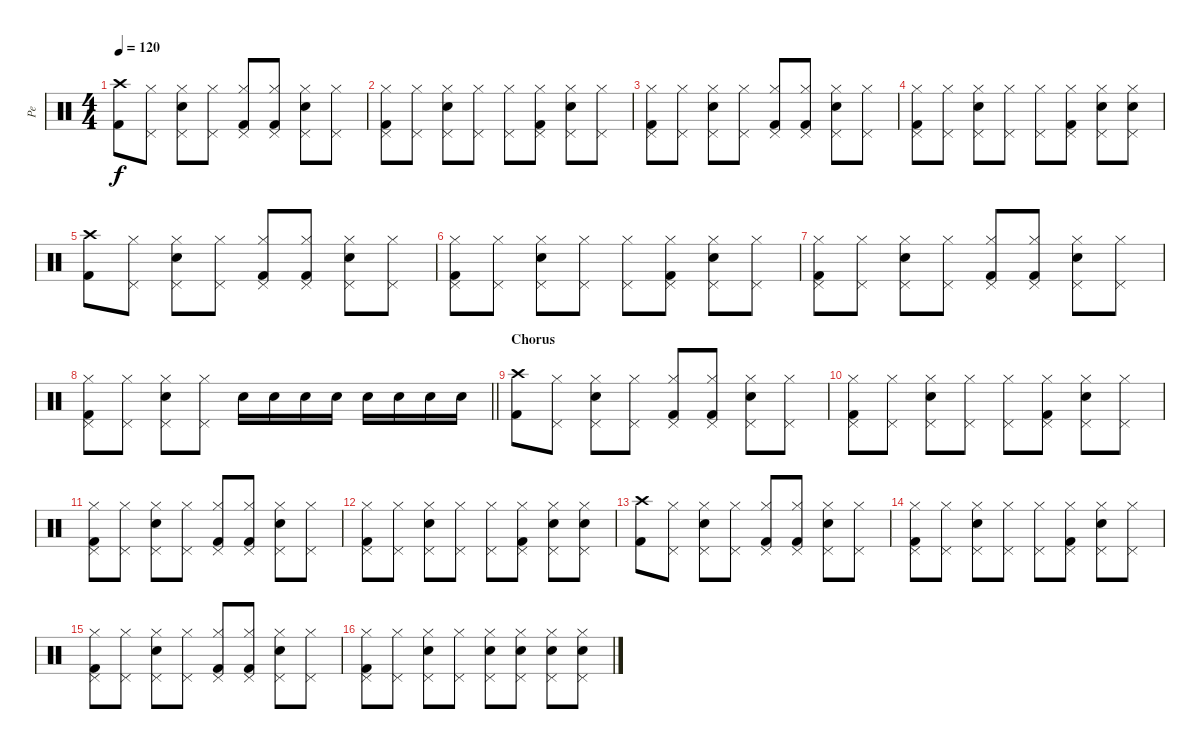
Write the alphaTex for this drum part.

\track ("Pe" "Pe") {instrument percussion}
\staff {score}
\articulation defaults
\ts (4 4)
\tempo 120
\clef neutral
\ks c
("Kick (hit) 2" "Crash high (hit)").8{dy f} ("Hi-Hat (closed)" "Pedal Hi-Hat (hit)").8 ("Snare (hit) 2" "Hi-Hat (closed)" "Pedal Hi-Hat (hit)").8 ("Hi-Hat (closed)" "Pedal Hi-Hat (hit)").8 ("Kick (hit) 2" "Hi-Hat (closed)" "Pedal Hi-Hat (hit)").8 ("Kick (hit) 2" "Hi-Hat (closed)" "Pedal Hi-Hat (hit)").8 ("Snare (hit) 2" "Hi-Hat (closed)" "Pedal Hi-Hat (hit)").8 ("Hi-Hat (closed)" "Pedal Hi-Hat (hit)").8 |
("Kick (hit) 2" "Hi-Hat (closed)" "Pedal Hi-Hat (hit)").8 ("Hi-Hat (closed)" "Pedal Hi-Hat (hit)").8 ("Snare (hit) 2" "Hi-Hat (closed)" "Pedal Hi-Hat (hit)").8 ("Hi-Hat (closed)" "Pedal Hi-Hat (hit)").8 ("Hi-Hat (closed)" "Pedal Hi-Hat (hit)").8 ("Kick (hit) 2" "Hi-Hat (closed)" "Pedal Hi-Hat (hit)").8 ("Snare (hit) 2" "Hi-Hat (closed)" "Pedal Hi-Hat (hit)").8 ("Hi-Hat (closed)" "Pedal Hi-Hat (hit)").8 |
("Kick (hit) 2" "Hi-Hat (closed)" "Pedal Hi-Hat (hit)").8 ("Hi-Hat (closed)" "Pedal Hi-Hat (hit)").8 ("Snare (hit) 2" "Hi-Hat (closed)" "Pedal Hi-Hat (hit)").8 ("Hi-Hat (closed)" "Pedal Hi-Hat (hit)").8 ("Kick (hit) 2" "Hi-Hat (closed)" "Pedal Hi-Hat (hit)").8 ("Kick (hit) 2" "Hi-Hat (closed)" "Pedal Hi-Hat (hit)").8 ("Snare (hit) 2" "Hi-Hat (closed)" "Pedal Hi-Hat (hit)").8 ("Hi-Hat (closed)" "Pedal Hi-Hat (hit)").8 |
("Kick (hit) 2" "Hi-Hat (closed)" "Pedal Hi-Hat (hit)").8 ("Hi-Hat (closed)" "Pedal Hi-Hat (hit)").8 ("Snare (hit) 2" "Hi-Hat (closed)" "Pedal Hi-Hat (hit)").8 ("Hi-Hat (closed)" "Pedal Hi-Hat (hit)").8 ("Hi-Hat (closed)" "Pedal Hi-Hat (hit)").8 ("Kick (hit) 2" "Hi-Hat (closed)" "Pedal Hi-Hat (hit)").8 ("Snare (hit) 2" "Hi-Hat (closed)" "Pedal Hi-Hat (hit)").8 ("Snare (hit) 2" "Hi-Hat (closed)" "Pedal Hi-Hat (hit)").8 |
("Kick (hit) 2" "Crash high (hit)").8 ("Hi-Hat (closed)" "Pedal Hi-Hat (hit)").8 ("Snare (hit) 2" "Hi-Hat (closed)" "Pedal Hi-Hat (hit)").8 ("Hi-Hat (closed)" "Pedal Hi-Hat (hit)").8 ("Kick (hit) 2" "Hi-Hat (closed)" "Pedal Hi-Hat (hit)").8 ("Kick (hit) 2" "Hi-Hat (closed)" "Pedal Hi-Hat (hit)").8 ("Snare (hit) 2" "Hi-Hat (closed)" "Pedal Hi-Hat (hit)").8 ("Hi-Hat (closed)" "Pedal Hi-Hat (hit)").8 |
("Kick (hit) 2" "Hi-Hat (closed)" "Pedal Hi-Hat (hit)").8 ("Hi-Hat (closed)" "Pedal Hi-Hat (hit)").8 ("Snare (hit) 2" "Hi-Hat (closed)" "Pedal Hi-Hat (hit)").8 ("Hi-Hat (closed)" "Pedal Hi-Hat (hit)").8 ("Hi-Hat (closed)" "Pedal Hi-Hat (hit)").8 ("Kick (hit) 2" "Hi-Hat (closed)" "Pedal Hi-Hat (hit)").8 ("Snare (hit) 2" "Hi-Hat (closed)" "Pedal Hi-Hat (hit)").8 ("Hi-Hat (closed)" "Pedal Hi-Hat (hit)").8 |
("Kick (hit) 2" "Hi-Hat (closed)" "Pedal Hi-Hat (hit)").8 ("Hi-Hat (closed)" "Pedal Hi-Hat (hit)").8 ("Snare (hit) 2" "Hi-Hat (closed)" "Pedal Hi-Hat (hit)").8 ("Hi-Hat (closed)" "Pedal Hi-Hat (hit)").8 ("Kick (hit) 2" "Hi-Hat (closed)" "Pedal Hi-Hat (hit)").8 ("Kick (hit) 2" "Hi-Hat (closed)" "Pedal Hi-Hat (hit)").8 ("Snare (hit) 2" "Hi-Hat (closed)" "Pedal Hi-Hat (hit)").8 ("Hi-Hat (closed)" "Pedal Hi-Hat (hit)").8 |
\barLineRight lightlight
("Kick (hit) 2" "Hi-Hat (closed)" "Pedal Hi-Hat (hit)").8 ("Hi-Hat (closed)" "Pedal Hi-Hat (hit)").8 ("Snare (hit) 2" "Hi-Hat (closed)" "Pedal Hi-Hat (hit)").8 ("Hi-Hat (closed)" "Pedal Hi-Hat (hit)").8 "Snare (hit) 2".16 "Snare (hit) 2".16 "Snare (hit) 2".16 "Snare (hit) 2".16 "Snare (hit) 2".16 "Snare (hit) 2".16 "Snare (hit) 2".16 "Snare (hit) 2".16 |
\section ("" "Chorus")
("Kick (hit) 2" "Crash high (hit)").8 ("Hi-Hat (closed)" "Pedal Hi-Hat (hit)").8 ("Snare (hit) 2" "Hi-Hat (closed)" "Pedal Hi-Hat (hit)").8 ("Hi-Hat (closed)" "Pedal Hi-Hat (hit)").8 ("Kick (hit) 2" "Hi-Hat (closed)" "Pedal Hi-Hat (hit)").8 ("Kick (hit) 2" "Hi-Hat (closed)" "Pedal Hi-Hat (hit)").8 ("Snare (hit) 2" "Hi-Hat (closed)" "Pedal Hi-Hat (hit)").8 ("Hi-Hat (closed)" "Pedal Hi-Hat (hit)").8 |
("Kick (hit) 2" "Hi-Hat (closed)" "Pedal Hi-Hat (hit)").8 ("Hi-Hat (closed)" "Pedal Hi-Hat (hit)").8 ("Snare (hit) 2" "Hi-Hat (closed)" "Pedal Hi-Hat (hit)").8 ("Hi-Hat (closed)" "Pedal Hi-Hat (hit)").8 ("Hi-Hat (closed)" "Pedal Hi-Hat (hit)").8 ("Kick (hit) 2" "Hi-Hat (closed)" "Pedal Hi-Hat (hit)").8 ("Snare (hit) 2" "Hi-Hat (closed)" "Pedal Hi-Hat (hit)").8 ("Hi-Hat (closed)" "Pedal Hi-Hat (hit)").8 |
("Kick (hit) 2" "Hi-Hat (closed)" "Pedal Hi-Hat (hit)").8 ("Hi-Hat (closed)" "Pedal Hi-Hat (hit)").8 ("Snare (hit) 2" "Hi-Hat (closed)" "Pedal Hi-Hat (hit)").8 ("Hi-Hat (closed)" "Pedal Hi-Hat (hit)").8 ("Kick (hit) 2" "Hi-Hat (closed)" "Pedal Hi-Hat (hit)").8 ("Kick (hit) 2" "Hi-Hat (closed)" "Pedal Hi-Hat (hit)").8 ("Snare (hit) 2" "Hi-Hat (closed)" "Pedal Hi-Hat (hit)").8 ("Hi-Hat (closed)" "Pedal Hi-Hat (hit)").8 |
("Kick (hit) 2" "Hi-Hat (closed)" "Pedal Hi-Hat (hit)").8 ("Hi-Hat (closed)" "Pedal Hi-Hat (hit)").8 ("Snare (hit) 2" "Hi-Hat (closed)" "Pedal Hi-Hat (hit)").8 ("Hi-Hat (closed)" "Pedal Hi-Hat (hit)").8 ("Hi-Hat (closed)" "Pedal Hi-Hat (hit)").8 ("Kick (hit) 2" "Hi-Hat (closed)" "Pedal Hi-Hat (hit)").8 ("Snare (hit) 2" "Hi-Hat (closed)" "Pedal Hi-Hat (hit)").8 ("Snare (hit) 2" "Hi-Hat (closed)" "Pedal Hi-Hat (hit)").8 |
("Kick (hit) 2" "Crash high (hit)").8 ("Hi-Hat (closed)" "Pedal Hi-Hat (hit)").8 ("Snare (hit) 2" "Hi-Hat (closed)" "Pedal Hi-Hat (hit)").8 ("Hi-Hat (closed)" "Pedal Hi-Hat (hit)").8 ("Kick (hit) 2" "Hi-Hat (closed)" "Pedal Hi-Hat (hit)").8 ("Kick (hit) 2" "Hi-Hat (closed)" "Pedal Hi-Hat (hit)").8 ("Snare (hit) 2" "Hi-Hat (closed)" "Pedal Hi-Hat (hit)").8 ("Hi-Hat (closed)" "Pedal Hi-Hat (hit)").8 |
("Kick (hit) 2" "Hi-Hat (closed)" "Pedal Hi-Hat (hit)").8 ("Hi-Hat (closed)" "Pedal Hi-Hat (hit)").8 ("Snare (hit) 2" "Hi-Hat (closed)" "Pedal Hi-Hat (hit)").8 ("Hi-Hat (closed)" "Pedal Hi-Hat (hit)").8 ("Hi-Hat (closed)" "Pedal Hi-Hat (hit)").8 ("Kick (hit) 2" "Hi-Hat (closed)" "Pedal Hi-Hat (hit)").8 ("Snare (hit) 2" "Hi-Hat (closed)" "Pedal Hi-Hat (hit)").8 ("Hi-Hat (closed)" "Pedal Hi-Hat (hit)").8 |
("Kick (hit) 2" "Hi-Hat (closed)" "Pedal Hi-Hat (hit)").8 ("Hi-Hat (closed)" "Pedal Hi-Hat (hit)").8 ("Snare (hit) 2" "Hi-Hat (closed)" "Pedal Hi-Hat (hit)").8 ("Hi-Hat (closed)" "Pedal Hi-Hat (hit)").8 ("Kick (hit) 2" "Hi-Hat (closed)" "Pedal Hi-Hat (hit)").8 ("Kick (hit) 2" "Hi-Hat (closed)" "Pedal Hi-Hat (hit)").8 ("Snare (hit) 2" "Hi-Hat (closed)" "Pedal Hi-Hat (hit)").8 ("Hi-Hat (closed)" "Pedal Hi-Hat (hit)").8 |
("Kick (hit) 2" "Hi-Hat (closed)" "Pedal Hi-Hat (hit)").8 ("Hi-Hat (closed)" "Pedal Hi-Hat (hit)").8 ("Snare (hit) 2" "Hi-Hat (closed)" "Pedal Hi-Hat (hit)").8 ("Hi-Hat (closed)" "Pedal Hi-Hat (hit)").8 ("Snare (hit) 2" "Hi-Hat (closed)" "Pedal Hi-Hat (hit)").8 ("Snare (hit) 2" "Hi-Hat (closed)" "Pedal Hi-Hat (hit)").8 ("Snare (hit) 2" "Hi-Hat (closed)" "Pedal Hi-Hat (hit)").8 ("Snare (hit) 2" "Hi-Hat (closed)" "Pedal Hi-Hat (hit)").8
